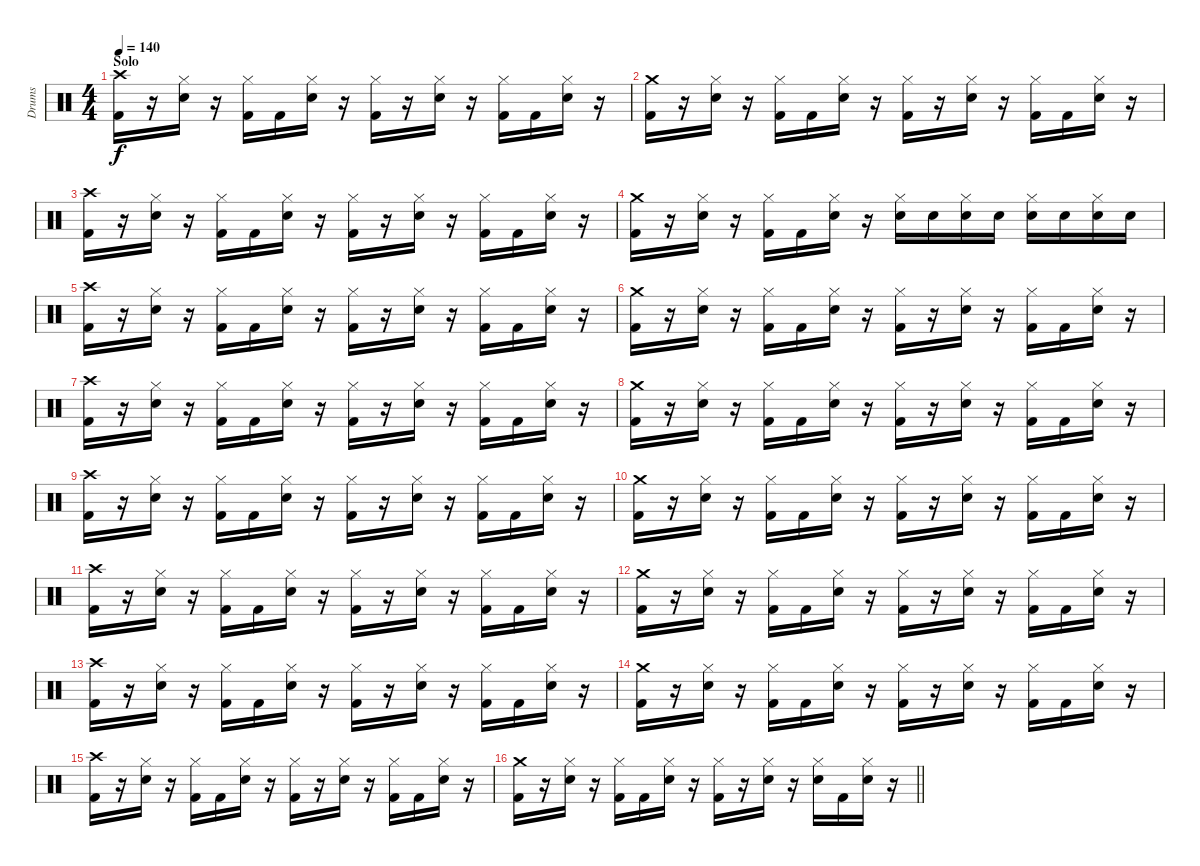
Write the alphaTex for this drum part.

\track ("Drums" "Drums") {instrument percussion}
\staff {score}
\articulation defaults
\ts (4 4)
\section ("" "Solo")
\tempo 140
\clef neutral
\ks c
("Crash high (hit)" "Kick (hit) 2").16{dy f} r.16 ("Hi-Hat (closed)" "Electric Snare (hit)").16 r.16 ("Hi-Hat (closed)" "Kick (hit) 2").16 "Kick (hit) 2".16 ("Hi-Hat (closed)" "Electric Snare (hit)").16 r.16 ("Hi-Hat (closed)" "Kick (hit) 2").16 r.16 ("Hi-Hat (closed)" "Electric Snare (hit)").16 r.16 ("Hi-Hat (closed)" "Kick (hit) 2").16 "Kick (hit) 2".16 ("Hi-Hat (closed)" "Electric Snare (hit)").16 r.16 |
("Crash medium (hit)" "Kick (hit) 2").16 r.16 ("Hi-Hat (closed)" "Electric Snare (hit)").16 r.16 ("Hi-Hat (closed)" "Kick (hit) 2").16 "Kick (hit) 2".16 ("Hi-Hat (closed)" "Electric Snare (hit)").16 r.16 ("Hi-Hat (closed)" "Kick (hit) 2").16 r.16 ("Hi-Hat (closed)" "Electric Snare (hit)").16 r.16 ("Hi-Hat (closed)" "Kick (hit) 2").16 "Kick (hit) 2".16 ("Hi-Hat (closed)" "Electric Snare (hit)").16 r.16 |
("Crash high (hit)" "Kick (hit) 2").16 r.16 ("Hi-Hat (closed)" "Electric Snare (hit)").16 r.16 ("Hi-Hat (closed)" "Kick (hit) 2").16 "Kick (hit) 2".16 ("Hi-Hat (closed)" "Electric Snare (hit)").16 r.16 ("Hi-Hat (closed)" "Kick (hit) 2").16 r.16 ("Hi-Hat (closed)" "Electric Snare (hit)").16 r.16 ("Hi-Hat (closed)" "Kick (hit) 2").16 "Kick (hit) 2".16 ("Hi-Hat (closed)" "Electric Snare (hit)").16 r.16 |
("Crash medium (hit)" "Kick (hit) 2").16 r.16 ("Hi-Hat (closed)" "Electric Snare (hit)").16 r.16 ("Hi-Hat (closed)" "Kick (hit) 2").16 "Kick (hit) 2".16 ("Hi-Hat (closed)" "Electric Snare (hit)").16 r.16 ("Hi-Hat (closed)" "Electric Snare (hit)").16 "Electric Snare (hit)".16 ("Hi-Hat (closed)" "Electric Snare (hit)").16 "Electric Snare (hit)".16 ("Hi-Hat (closed)" "Electric Snare (hit)").16 "Electric Snare (hit)".16 ("Hi-Hat (closed)" "Electric Snare (hit)").16 "Electric Snare (hit)".16 |
("Crash high (hit)" "Kick (hit) 2").16 r.16 ("Hi-Hat (closed)" "Electric Snare (hit)").16 r.16 ("Hi-Hat (closed)" "Kick (hit) 2").16 "Kick (hit) 2".16 ("Hi-Hat (closed)" "Electric Snare (hit)").16 r.16 ("Hi-Hat (closed)" "Kick (hit) 2").16 r.16 ("Hi-Hat (closed)" "Electric Snare (hit)").16 r.16 ("Hi-Hat (closed)" "Kick (hit) 2").16 "Kick (hit) 2".16 ("Hi-Hat (closed)" "Electric Snare (hit)").16 r.16 |
("Crash medium (hit)" "Kick (hit) 2").16 r.16 ("Hi-Hat (closed)" "Electric Snare (hit)").16 r.16 ("Hi-Hat (closed)" "Kick (hit) 2").16 "Kick (hit) 2".16 ("Hi-Hat (closed)" "Electric Snare (hit)").16 r.16 ("Hi-Hat (closed)" "Kick (hit) 2").16 r.16 ("Hi-Hat (closed)" "Electric Snare (hit)").16 r.16 ("Hi-Hat (closed)" "Kick (hit) 2").16 "Kick (hit) 2".16 ("Hi-Hat (closed)" "Electric Snare (hit)").16 r.16 |
("Crash high (hit)" "Kick (hit) 2").16 r.16 ("Hi-Hat (closed)" "Electric Snare (hit)").16 r.16 ("Hi-Hat (closed)" "Kick (hit) 2").16 "Kick (hit) 2".16 ("Hi-Hat (closed)" "Electric Snare (hit)").16 r.16 ("Hi-Hat (closed)" "Kick (hit) 2").16 r.16 ("Hi-Hat (closed)" "Electric Snare (hit)").16 r.16 ("Hi-Hat (closed)" "Kick (hit) 2").16 "Kick (hit) 2".16 ("Hi-Hat (closed)" "Electric Snare (hit)").16 r.16 |
("Crash medium (hit)" "Kick (hit) 2").16 r.16 ("Hi-Hat (closed)" "Electric Snare (hit)").16 r.16 ("Hi-Hat (closed)" "Kick (hit) 2").16 "Kick (hit) 2".16 ("Hi-Hat (closed)" "Electric Snare (hit)").16 r.16 ("Hi-Hat (closed)" "Kick (hit) 2").16 r.16 ("Hi-Hat (closed)" "Electric Snare (hit)").16 r.16 ("Hi-Hat (closed)" "Kick (hit) 2").16 "Kick (hit) 2".16 ("Hi-Hat (closed)" "Electric Snare (hit)").16 r.16 |
("Crash high (hit)" "Kick (hit) 2").16 r.16 ("Hi-Hat (closed)" "Electric Snare (hit)").16 r.16 ("Hi-Hat (closed)" "Kick (hit) 2").16 "Kick (hit) 2".16 ("Hi-Hat (closed)" "Electric Snare (hit)").16 r.16 ("Hi-Hat (closed)" "Kick (hit) 2").16 r.16 ("Hi-Hat (closed)" "Electric Snare (hit)").16 r.16 ("Hi-Hat (closed)" "Kick (hit) 2").16 "Kick (hit) 2".16 ("Hi-Hat (closed)" "Electric Snare (hit)").16 r.16 |
("Crash medium (hit)" "Kick (hit) 2").16 r.16 ("Hi-Hat (closed)" "Electric Snare (hit)").16 r.16 ("Hi-Hat (closed)" "Kick (hit) 2").16 "Kick (hit) 2".16 ("Hi-Hat (closed)" "Electric Snare (hit)").16 r.16 ("Hi-Hat (closed)" "Kick (hit) 2").16 r.16 ("Hi-Hat (closed)" "Electric Snare (hit)").16 r.16 ("Hi-Hat (closed)" "Kick (hit) 2").16 "Kick (hit) 2".16 ("Hi-Hat (closed)" "Electric Snare (hit)").16 r.16 |
("Crash high (hit)" "Kick (hit) 2").16 r.16 ("Hi-Hat (closed)" "Electric Snare (hit)").16 r.16 ("Hi-Hat (closed)" "Kick (hit) 2").16 "Kick (hit) 2".16 ("Hi-Hat (closed)" "Electric Snare (hit)").16 r.16 ("Hi-Hat (closed)" "Kick (hit) 2").16 r.16 ("Hi-Hat (closed)" "Electric Snare (hit)").16 r.16 ("Hi-Hat (closed)" "Kick (hit) 2").16 "Kick (hit) 2".16 ("Hi-Hat (closed)" "Electric Snare (hit)").16 r.16 |
("Crash medium (hit)" "Kick (hit) 2").16 r.16 ("Hi-Hat (closed)" "Electric Snare (hit)").16 r.16 ("Hi-Hat (closed)" "Kick (hit) 2").16 "Kick (hit) 2".16 ("Hi-Hat (closed)" "Electric Snare (hit)").16 r.16 ("Hi-Hat (closed)" "Kick (hit) 2").16 r.16 ("Hi-Hat (closed)" "Electric Snare (hit)").16 r.16 ("Hi-Hat (closed)" "Kick (hit) 2").16 "Kick (hit) 2".16 ("Hi-Hat (closed)" "Electric Snare (hit)").16 r.16 |
("Crash high (hit)" "Kick (hit) 2").16 r.16 ("Hi-Hat (closed)" "Electric Snare (hit)").16 r.16 ("Hi-Hat (closed)" "Kick (hit) 2").16 "Kick (hit) 2".16 ("Hi-Hat (closed)" "Electric Snare (hit)").16 r.16 ("Hi-Hat (closed)" "Kick (hit) 2").16 r.16 ("Hi-Hat (closed)" "Electric Snare (hit)").16 r.16 ("Hi-Hat (closed)" "Kick (hit) 2").16 "Kick (hit) 2".16 ("Hi-Hat (closed)" "Electric Snare (hit)").16 r.16 |
("Crash medium (hit)" "Kick (hit) 2").16 r.16 ("Hi-Hat (closed)" "Electric Snare (hit)").16 r.16 ("Hi-Hat (closed)" "Kick (hit) 2").16 "Kick (hit) 2".16 ("Hi-Hat (closed)" "Electric Snare (hit)").16 r.16 ("Hi-Hat (closed)" "Kick (hit) 2").16 r.16 ("Hi-Hat (closed)" "Electric Snare (hit)").16 r.16 ("Hi-Hat (closed)" "Kick (hit) 2").16 "Kick (hit) 2".16 ("Hi-Hat (closed)" "Electric Snare (hit)").16 r.16 |
("Crash high (hit)" "Kick (hit) 2").16 r.16 ("Hi-Hat (closed)" "Electric Snare (hit)").16 r.16 ("Hi-Hat (closed)" "Kick (hit) 2").16 "Kick (hit) 2".16 ("Hi-Hat (closed)" "Electric Snare (hit)").16 r.16 ("Hi-Hat (closed)" "Kick (hit) 2").16 r.16 ("Hi-Hat (closed)" "Electric Snare (hit)").16 r.16 ("Hi-Hat (closed)" "Kick (hit) 2").16 "Kick (hit) 2".16 ("Hi-Hat (closed)" "Electric Snare (hit)").16 r.16 |
\barLineRight lightlight
("Crash medium (hit)" "Kick (hit) 2").16 r.16 ("Hi-Hat (closed)" "Electric Snare (hit)").16 r.16 ("Hi-Hat (closed)" "Kick (hit) 2").16 "Kick (hit) 2".16 ("Hi-Hat (closed)" "Electric Snare (hit)").16 r.16 ("Hi-Hat (closed)" "Kick (hit) 2").16 r.16 ("Hi-Hat (closed)" "Electric Snare (hit)").16 r.16 ("Hi-Hat (closed)" "Electric Snare (hit)").16 "Kick (hit) 2".16 ("Hi-Hat (closed)" "Electric Snare (hit)").16 r.16
